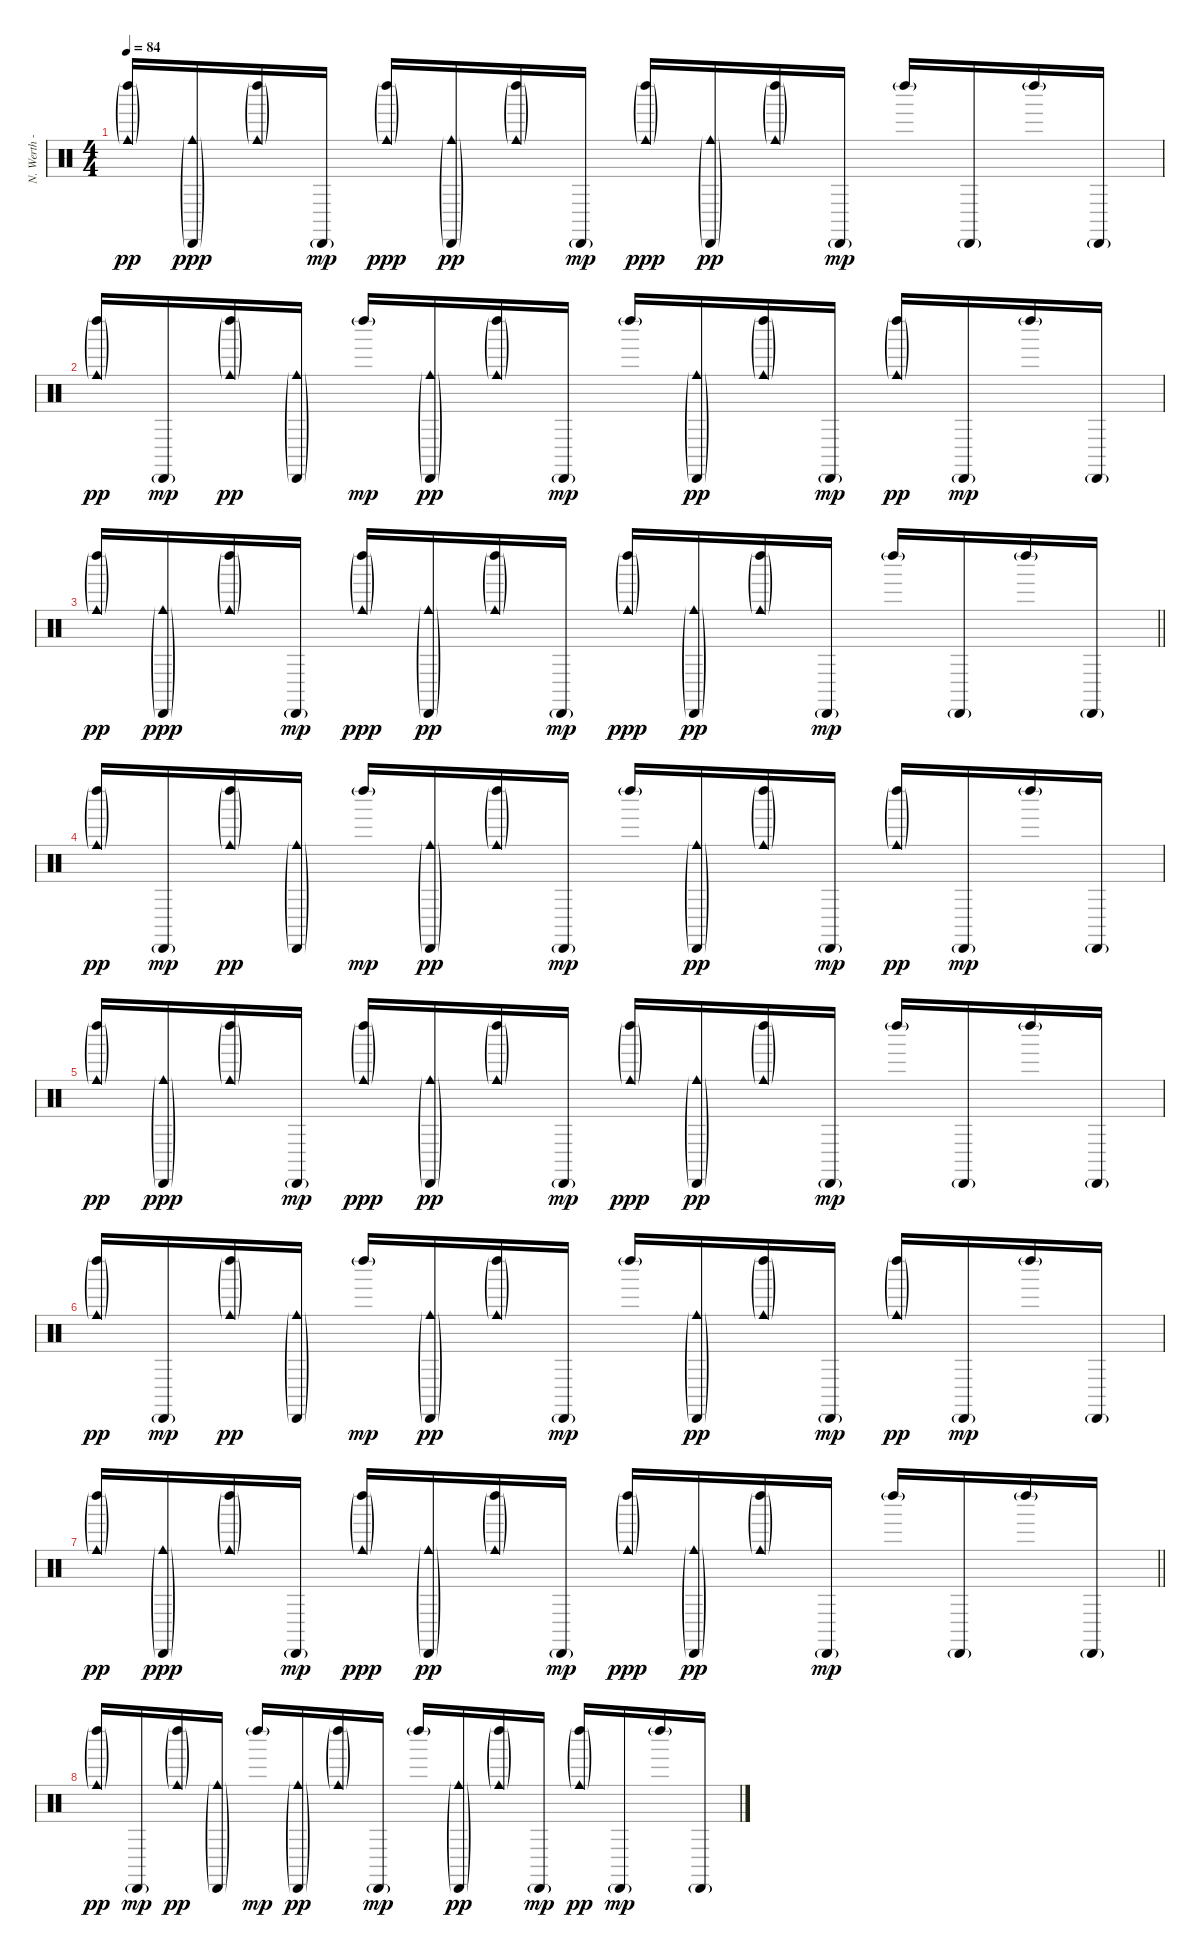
\track ("N. Werth - Percussion" "N. Werth -") {instrument percussion}
\staff {score}
\articulation defaults
\ts (4 4)
\tempo 84
\clef neutral
\ks c
("Left Maraca (hit)"{g} "Cowbell medium (hit)"{g}).16{dy pp} ("Cabasa (hit)"{g} "Cowbell medium (hit)"{g}).16{dy ppp} ("Left Maraca (hit)"{g} "Cowbell medium (hit)"{g}).16 "Cabasa (hit)"{g}.16{dy mp} ("Left Maraca (hit)"{g} "Cowbell medium (hit)"{g}).16{dy ppp} ("Cabasa (hit)"{g} "Cowbell medium (hit)"{g}).16{dy pp} ("Left Maraca (hit)"{g} "Cowbell medium (hit)"{g}).16 "Cabasa (hit)"{g}.16{dy mp} ("Left Maraca (hit)"{g} "Cowbell medium (hit)"{g}).16{dy ppp} ("Cabasa (hit)"{g} "Cowbell medium (hit)"{g}).16{dy pp} ("Left Maraca (hit)"{g} "Cowbell medium (hit)"{g}).16 "Cabasa (hit)"{g}.16{dy mp} "Left Maraca (hit)"{g}.16 "Cabasa (hit)"{g}.16 "Left Maraca (hit)"{g}.16 "Cabasa (hit)"{g}.16 |
("Left Maraca (hit)"{g} "Cowbell medium (hit)"{g}).16{dy pp} "Cabasa (hit)"{g}.16{dy mp} ("Left Maraca (hit)"{g} "Cowbell medium (hit)"{g}).16{dy pp} ("Cabasa (hit)"{g} "Cowbell medium (hit)"{g}).16 "Left Maraca (hit)"{g}.16{dy mp} ("Cabasa (hit)"{g} "Cowbell medium (hit)"{g}).16{dy pp} ("Left Maraca (hit)"{g} "Cowbell medium (hit)"{g}).16 "Cabasa (hit)"{g}.16{dy mp} "Left Maraca (hit)"{g}.16 ("Cabasa (hit)"{g} "Cowbell medium (hit)"{g}).16{dy pp} ("Left Maraca (hit)"{g} "Cowbell medium (hit)"{g}).16 "Cabasa (hit)"{g}.16{dy mp} ("Left Maraca (hit)"{g} "Cowbell medium (hit)"{g}).16{dy pp} "Cabasa (hit)"{g}.16{dy mp} "Left Maraca (hit)"{g}.16 "Cabasa (hit)"{g}.16 |
\barLineRight lightlight
("Left Maraca (hit)"{g} "Cowbell medium (hit)"{g}).16{dy pp} ("Cabasa (hit)"{g} "Cowbell medium (hit)"{g}).16{dy ppp} ("Left Maraca (hit)"{g} "Cowbell medium (hit)"{g}).16 "Cabasa (hit)"{g}.16{dy mp} ("Left Maraca (hit)"{g} "Cowbell medium (hit)"{g}).16{dy ppp} ("Cabasa (hit)"{g} "Cowbell medium (hit)"{g}).16{dy pp} ("Left Maraca (hit)"{g} "Cowbell medium (hit)"{g}).16 "Cabasa (hit)"{g}.16{dy mp} ("Left Maraca (hit)"{g} "Cowbell medium (hit)"{g}).16{dy ppp} ("Cabasa (hit)"{g} "Cowbell medium (hit)"{g}).16{dy pp} ("Left Maraca (hit)"{g} "Cowbell medium (hit)"{g}).16 "Cabasa (hit)"{g}.16{dy mp} "Left Maraca (hit)"{g}.16 "Cabasa (hit)"{g}.16 "Left Maraca (hit)"{g}.16 "Cabasa (hit)"{g}.16 |
("Left Maraca (hit)"{g} "Cowbell medium (hit)"{g}).16{dy pp} "Cabasa (hit)"{g}.16{dy mp} ("Left Maraca (hit)"{g} "Cowbell medium (hit)"{g}).16{dy pp} ("Cabasa (hit)"{g} "Cowbell medium (hit)"{g}).16 "Left Maraca (hit)"{g}.16{dy mp} ("Cabasa (hit)"{g} "Cowbell medium (hit)"{g}).16{dy pp} ("Left Maraca (hit)"{g} "Cowbell medium (hit)"{g}).16 "Cabasa (hit)"{g}.16{dy mp} "Left Maraca (hit)"{g}.16 ("Cabasa (hit)"{g} "Cowbell medium (hit)"{g}).16{dy pp} ("Left Maraca (hit)"{g} "Cowbell medium (hit)"{g}).16 "Cabasa (hit)"{g}.16{dy mp} ("Left Maraca (hit)"{g} "Cowbell medium (hit)"{g}).16{dy pp} "Cabasa (hit)"{g}.16{dy mp} "Left Maraca (hit)"{g}.16 "Cabasa (hit)"{g}.16 |
("Left Maraca (hit)"{g} "Cowbell medium (hit)"{g}).16{dy pp} ("Cabasa (hit)"{g} "Cowbell medium (hit)"{g}).16{dy ppp} ("Left Maraca (hit)"{g} "Cowbell medium (hit)"{g}).16 "Cabasa (hit)"{g}.16{dy mp} ("Left Maraca (hit)"{g} "Cowbell medium (hit)"{g}).16{dy ppp} ("Cabasa (hit)"{g} "Cowbell medium (hit)"{g}).16{dy pp} ("Left Maraca (hit)"{g} "Cowbell medium (hit)"{g}).16 "Cabasa (hit)"{g}.16{dy mp} ("Left Maraca (hit)"{g} "Cowbell medium (hit)"{g}).16{dy ppp} ("Cabasa (hit)"{g} "Cowbell medium (hit)"{g}).16{dy pp} ("Left Maraca (hit)"{g} "Cowbell medium (hit)"{g}).16 "Cabasa (hit)"{g}.16{dy mp} "Left Maraca (hit)"{g}.16 "Cabasa (hit)"{g}.16 "Left Maraca (hit)"{g}.16 "Cabasa (hit)"{g}.16 |
("Left Maraca (hit)"{g} "Cowbell medium (hit)"{g}).16{dy pp} "Cabasa (hit)"{g}.16{dy mp} ("Left Maraca (hit)"{g} "Cowbell medium (hit)"{g}).16{dy pp} ("Cabasa (hit)"{g} "Cowbell medium (hit)"{g}).16 "Left Maraca (hit)"{g}.16{dy mp} ("Cabasa (hit)"{g} "Cowbell medium (hit)"{g}).16{dy pp} ("Left Maraca (hit)"{g} "Cowbell medium (hit)"{g}).16 "Cabasa (hit)"{g}.16{dy mp} "Left Maraca (hit)"{g}.16 ("Cabasa (hit)"{g} "Cowbell medium (hit)"{g}).16{dy pp} ("Left Maraca (hit)"{g} "Cowbell medium (hit)"{g}).16 "Cabasa (hit)"{g}.16{dy mp} ("Left Maraca (hit)"{g} "Cowbell medium (hit)"{g}).16{dy pp} "Cabasa (hit)"{g}.16{dy mp} "Left Maraca (hit)"{g}.16 "Cabasa (hit)"{g}.16 |
\barLineRight lightlight
("Left Maraca (hit)"{g} "Cowbell medium (hit)"{g}).16{dy pp} ("Cabasa (hit)"{g} "Cowbell medium (hit)"{g}).16{dy ppp} ("Left Maraca (hit)"{g} "Cowbell medium (hit)"{g}).16 "Cabasa (hit)"{g}.16{dy mp} ("Left Maraca (hit)"{g} "Cowbell medium (hit)"{g}).16{dy ppp} ("Cabasa (hit)"{g} "Cowbell medium (hit)"{g}).16{dy pp} ("Left Maraca (hit)"{g} "Cowbell medium (hit)"{g}).16 "Cabasa (hit)"{g}.16{dy mp} ("Left Maraca (hit)"{g} "Cowbell medium (hit)"{g}).16{dy ppp} ("Cabasa (hit)"{g} "Cowbell medium (hit)"{g}).16{dy pp} ("Left Maraca (hit)"{g} "Cowbell medium (hit)"{g}).16 "Cabasa (hit)"{g}.16{dy mp} "Left Maraca (hit)"{g}.16 "Cabasa (hit)"{g}.16 "Left Maraca (hit)"{g}.16 "Cabasa (hit)"{g}.16 |
("Left Maraca (hit)"{g} "Cowbell medium (hit)"{g}).16{dy pp} "Cabasa (hit)"{g}.16{dy mp} ("Left Maraca (hit)"{g} "Cowbell medium (hit)"{g}).16{dy pp} ("Cabasa (hit)"{g} "Cowbell medium (hit)"{g}).16 "Left Maraca (hit)"{g}.16{dy mp} ("Cabasa (hit)"{g} "Cowbell medium (hit)"{g}).16{dy pp} ("Left Maraca (hit)"{g} "Cowbell medium (hit)"{g}).16 "Cabasa (hit)"{g}.16{dy mp} "Left Maraca (hit)"{g}.16 ("Cabasa (hit)"{g} "Cowbell medium (hit)"{g}).16{dy pp} ("Left Maraca (hit)"{g} "Cowbell medium (hit)"{g}).16 "Cabasa (hit)"{g}.16{dy mp} ("Left Maraca (hit)"{g} "Cowbell medium (hit)"{g}).16{dy pp} "Cabasa (hit)"{g}.16{dy mp} "Left Maraca (hit)"{g}.16 "Cabasa (hit)"{g}.16
